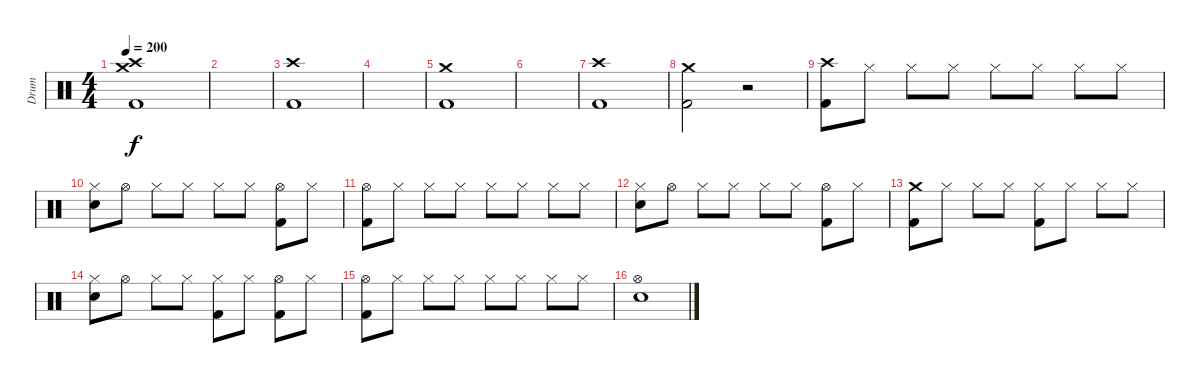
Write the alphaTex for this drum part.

\track ("Drum" "Drum") {instrument percussion}
\staff {score}
\articulation defaults
\ts (4 4)
\tempo 200
\clef neutral
\ks c
("Crash high (hit)" "Crash medium (hit)" "Kick (hit) 2").1{dy f} |
|
("Crash high (hit)" "Kick (hit) 2").1 |
|
("Crash medium (hit)" "Kick (hit) 2").1 |
|
("Crash high (hit)" "Kick (hit) 2").1 |
("Crash medium (hit)" "Kick (hit) 2").2 r.2 |
("Crash high (hit)" "Kick (hit) 2").8 "Hi-Hat (closed)".8 "Hi-Hat (closed)".8 "Hi-Hat (closed)".8 "Hi-Hat (closed)".8 "Hi-Hat (closed)".8 "Hi-Hat (closed)".8 "Hi-Hat (closed)".8 |
("Hi-Hat (closed)" "Snare (hit) 2").8 "Hi-Hat (open)".8 "Hi-Hat (closed)".8 "Hi-Hat (closed)".8 "Hi-Hat (closed)".8 "Hi-Hat (closed)".8 ("Hi-Hat (open)" "Kick (hit) 2").8 "Hi-Hat (closed)".8 |
("Hi-Hat (open)" "Kick (hit) 2").8 "Hi-Hat (closed)".8 "Hi-Hat (closed)".8 "Hi-Hat (closed)".8 "Hi-Hat (closed)".8 "Hi-Hat (closed)".8 "Hi-Hat (closed)".8 "Hi-Hat (closed)".8 |
("Hi-Hat (closed)" "Snare (hit) 2").8 "Hi-Hat (open)".8 "Hi-Hat (closed)".8 "Hi-Hat (closed)".8 "Hi-Hat (closed)".8 "Hi-Hat (closed)".8 ("Hi-Hat (open)" "Kick (hit) 2").8 "Hi-Hat (closed)".8 |
("Crash medium (hit)" "Kick (hit) 2").8 "Hi-Hat (closed)".8 "Hi-Hat (closed)".8 "Hi-Hat (closed)".8 ("Hi-Hat (closed)" "Kick (hit) 2").8 "Hi-Hat (closed)".8 "Hi-Hat (closed)".8 "Hi-Hat (closed)".8 |
("Hi-Hat (closed)" "Snare (hit) 2").8 "Hi-Hat (open)".8 "Hi-Hat (closed)".8 "Hi-Hat (closed)".8 ("Hi-Hat (closed)" "Kick (hit) 2").8 "Hi-Hat (closed)".8 ("Hi-Hat (open)" "Kick (hit) 2").8 "Hi-Hat (closed)".8 |
("Hi-Hat (open)" "Kick (hit) 2").8 "Hi-Hat (closed)".8 "Hi-Hat (closed)".8 "Hi-Hat (closed)".8 "Hi-Hat (closed)".8 "Hi-Hat (closed)".8 "Hi-Hat (closed)".8 "Hi-Hat (closed)".8 |
("Hi-Hat (open)" "Snare (hit) 2").1
